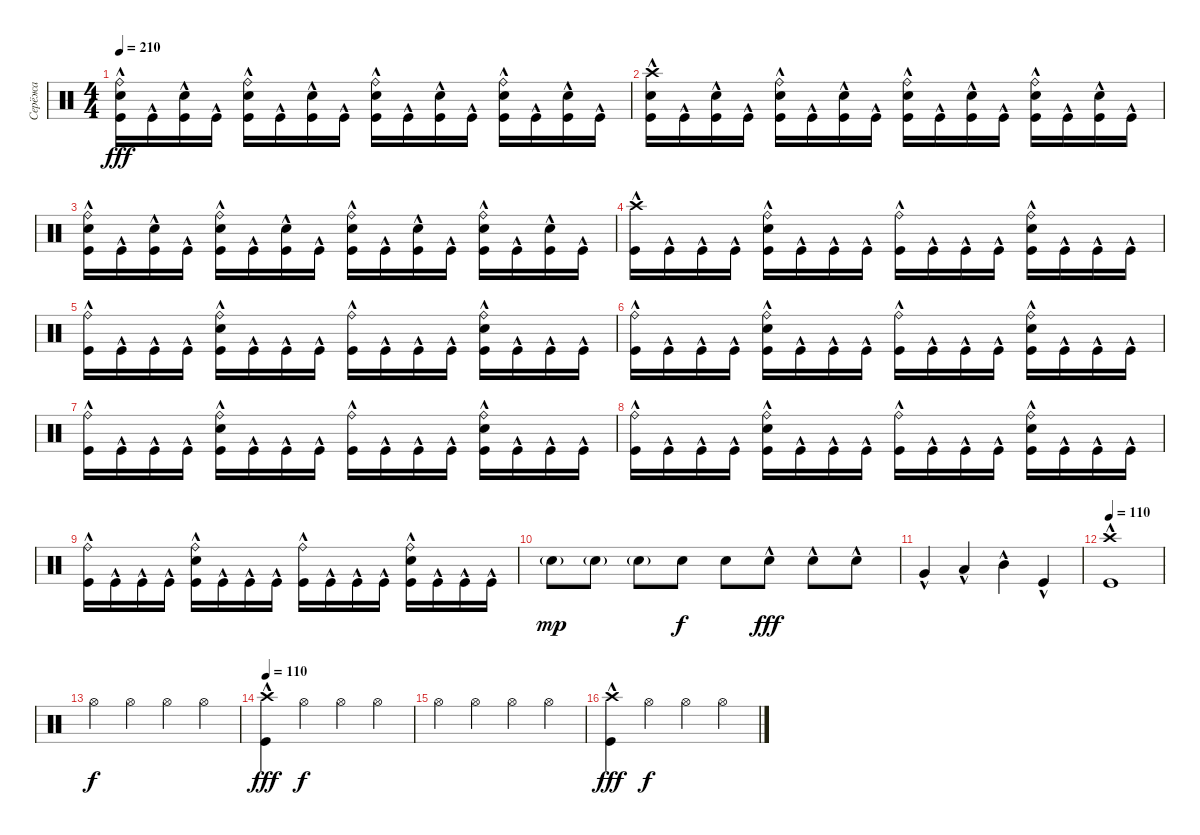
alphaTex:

\track ("Серёжа" "Серёжа") {instrument percussion}
\staff {score}
\articulation defaults
\ts (4 4)
\tempo 210
\clef neutral
\ks c
("Ride (bell)" "Snare (hit) 2"{hac} "Kick (hit)"{hac}).16{dy fff} "Kick (hit)"{hac}.16 ("Snare (hit) 2"{hac} "Kick (hit)"{hac}).16 "Kick (hit)"{hac}.16 ("Ride (bell)" "Snare (hit) 2"{hac} "Kick (hit)"{hac}).16 "Kick (hit)"{hac}.16 ("Snare (hit) 2"{hac} "Kick (hit)"{hac}).16 "Kick (hit)"{hac}.16 ("Ride (bell)" "Snare (hit) 2"{hac} "Kick (hit)"{hac}).16 "Kick (hit)"{hac}.16 ("Snare (hit) 2"{hac} "Kick (hit)"{hac}).16 "Kick (hit)"{hac}.16 ("Ride (bell)" "Snare (hit) 2"{hac} "Kick (hit)"{hac}).16 "Kick (hit)"{hac}.16 ("Snare (hit) 2"{hac} "Kick (hit)"{hac}).16 "Kick (hit)"{hac}.16 |
("Crash high (hit)"{hac} "Snare (hit) 2"{hac} "Kick (hit)"{hac}).16 "Kick (hit)"{hac}.16 ("Snare (hit) 2"{hac} "Kick (hit)"{hac}).16 "Kick (hit)"{hac}.16 ("Ride (bell)" "Snare (hit) 2"{hac} "Kick (hit)"{hac}).16 "Kick (hit)"{hac}.16 ("Snare (hit) 2"{hac} "Kick (hit)"{hac}).16 "Kick (hit)"{hac}.16 ("Ride (bell)" "Snare (hit) 2"{hac} "Kick (hit)"{hac}).16 "Kick (hit)"{hac}.16 ("Snare (hit) 2"{hac} "Kick (hit)"{hac}).16 "Kick (hit)"{hac}.16 ("Ride (bell)" "Snare (hit) 2"{hac} "Kick (hit)"{hac}).16 "Kick (hit)"{hac}.16 ("Snare (hit) 2"{hac} "Kick (hit)"{hac}).16 "Kick (hit)"{hac}.16 |
("Ride (bell)" "Snare (hit) 2"{hac} "Kick (hit)"{hac}).16 "Kick (hit)"{hac}.16 ("Snare (hit) 2"{hac} "Kick (hit)"{hac}).16 "Kick (hit)"{hac}.16 ("Ride (bell)" "Snare (hit) 2"{hac} "Kick (hit)"{hac}).16 "Kick (hit)"{hac}.16 ("Snare (hit) 2"{hac} "Kick (hit)"{hac}).16 "Kick (hit)"{hac}.16 ("Ride (bell)" "Snare (hit) 2"{hac} "Kick (hit)"{hac}).16 "Kick (hit)"{hac}.16 ("Snare (hit) 2"{hac} "Kick (hit)"{hac}).16 "Kick (hit)"{hac}.16 ("Ride (bell)" "Snare (hit) 2"{hac} "Kick (hit)"{hac}).16 "Kick (hit)"{hac}.16 ("Snare (hit) 2"{hac} "Kick (hit)"{hac}).16 "Kick (hit)"{hac}.16 |
("Crash high (hit)"{hac} "Kick (hit)"{hac}).16 "Kick (hit)"{hac}.16 "Kick (hit)"{hac}.16 "Kick (hit)"{hac}.16 ("Ride (bell)" "Snare (hit) 2"{hac} "Kick (hit)"{hac}).16 "Kick (hit)"{hac}.16 "Kick (hit)"{hac}.16 "Kick (hit)"{hac}.16 ("Ride (bell)" "Kick (hit)"{hac}).16 "Kick (hit)"{hac}.16 "Kick (hit)"{hac}.16 "Kick (hit)"{hac}.16 ("Ride (bell)" "Snare (hit) 2"{hac} "Kick (hit)"{hac}).16 "Kick (hit)"{hac}.16 "Kick (hit)"{hac}.16 "Kick (hit)"{hac}.16 |
("Ride (bell)" "Kick (hit)"{hac}).16 "Kick (hit)"{hac}.16 "Kick (hit)"{hac}.16 "Kick (hit)"{hac}.16 ("Ride (bell)" "Snare (hit) 2"{hac} "Kick (hit)"{hac}).16 "Kick (hit)"{hac}.16 "Kick (hit)"{hac}.16 "Kick (hit)"{hac}.16 ("Ride (bell)" "Kick (hit)"{hac}).16 "Kick (hit)"{hac}.16 "Kick (hit)"{hac}.16 "Kick (hit)"{hac}.16 ("Ride (bell)" "Snare (hit) 2"{hac} "Kick (hit)"{hac}).16 "Kick (hit)"{hac}.16 "Kick (hit)"{hac}.16 "Kick (hit)"{hac}.16 |
("Ride (bell)" "Kick (hit)"{hac}).16 "Kick (hit)"{hac}.16 "Kick (hit)"{hac}.16 "Kick (hit)"{hac}.16 ("Ride (bell)" "Snare (hit) 2"{hac} "Kick (hit)"{hac}).16 "Kick (hit)"{hac}.16 "Kick (hit)"{hac}.16 "Kick (hit)"{hac}.16 ("Ride (bell)" "Kick (hit)"{hac}).16 "Kick (hit)"{hac}.16 "Kick (hit)"{hac}.16 "Kick (hit)"{hac}.16 ("Ride (bell)" "Snare (hit) 2"{hac} "Kick (hit)"{hac}).16 "Kick (hit)"{hac}.16 "Kick (hit)"{hac}.16 "Kick (hit)"{hac}.16 |
("Ride (bell)" "Kick (hit)"{hac}).16 "Kick (hit)"{hac}.16 "Kick (hit)"{hac}.16 "Kick (hit)"{hac}.16 ("Ride (bell)" "Snare (hit) 2"{hac} "Kick (hit)"{hac}).16 "Kick (hit)"{hac}.16 "Kick (hit)"{hac}.16 "Kick (hit)"{hac}.16 ("Ride (bell)" "Kick (hit)"{hac}).16 "Kick (hit)"{hac}.16 "Kick (hit)"{hac}.16 "Kick (hit)"{hac}.16 ("Ride (bell)" "Snare (hit) 2"{hac} "Kick (hit)"{hac}).16 "Kick (hit)"{hac}.16 "Kick (hit)"{hac}.16 "Kick (hit)"{hac}.16 |
("Ride (bell)" "Kick (hit)"{hac}).16 "Kick (hit)"{hac}.16 "Kick (hit)"{hac}.16 "Kick (hit)"{hac}.16 ("Ride (bell)" "Snare (hit) 2"{hac} "Kick (hit)"{hac}).16 "Kick (hit)"{hac}.16 "Kick (hit)"{hac}.16 "Kick (hit)"{hac}.16 ("Ride (bell)" "Kick (hit)"{hac}).16 "Kick (hit)"{hac}.16 "Kick (hit)"{hac}.16 "Kick (hit)"{hac}.16 ("Ride (bell)" "Snare (hit) 2"{hac} "Kick (hit)"{hac}).16 "Kick (hit)"{hac}.16 "Kick (hit)"{hac}.16 "Kick (hit)"{hac}.16 |
("Ride (bell)" "Kick (hit)"{hac}).16 "Kick (hit)"{hac}.16 "Kick (hit)"{hac}.16 "Kick (hit)"{hac}.16 ("Ride (bell)" "Snare (hit) 2"{hac} "Kick (hit)"{hac}).16 "Kick (hit)"{hac}.16 "Kick (hit)"{hac}.16 "Kick (hit)"{hac}.16 ("Ride (bell)" "Kick (hit)"{hac}).16 "Kick (hit)"{hac}.16 "Kick (hit)"{hac}.16 "Kick (hit)"{hac}.16 ("Ride (bell)" "Snare (hit) 2"{hac} "Kick (hit)"{hac}).16 "Kick (hit)"{hac}.16 "Kick (hit)"{hac}.16 "Kick (hit)"{hac}.16 |
"Snare (hit) 2"{g}.8{dy mp} "Snare (hit) 2"{g}.8 "Snare (hit) 2"{g}.8 "Snare (hit) 2".8{dy f} "Snare (hit) 2".8 "Snare (hit) 2"{hac}.8{dy fff} "Snare (hit) 2"{hac}.8 "Snare (hit) 2"{hac}.8 |
"Very Low Tom (hit)"{hac}.4 "Low Tom (hit)"{hac}.4 "Mid Tom (hit)"{hac}.4 "Kick (hit)"{hac}.4 |
\tempo 110
("Crash high (hit)"{hac} "Kick (hit)"{hac}).1 |
"Hi-Hat (open)".4{dy f} "Hi-Hat (open)".4 "Hi-Hat (open)".4 "Hi-Hat (open)".4 |
\tempo 110
("Crash high (hit)"{hac} "Kick (hit)"{hac}).4{dy fff} "Hi-Hat (open)".4{dy f} "Hi-Hat (open)".4 "Hi-Hat (open)".4 |
"Hi-Hat (open)".4 "Hi-Hat (open)".4 "Hi-Hat (open)".4 "Hi-Hat (open)".4 |
("Crash high (hit)"{hac} "Kick (hit)"{hac}).4{dy fff} "Hi-Hat (open)".4{dy f} "Hi-Hat (open)".4 "Hi-Hat (open)".4
